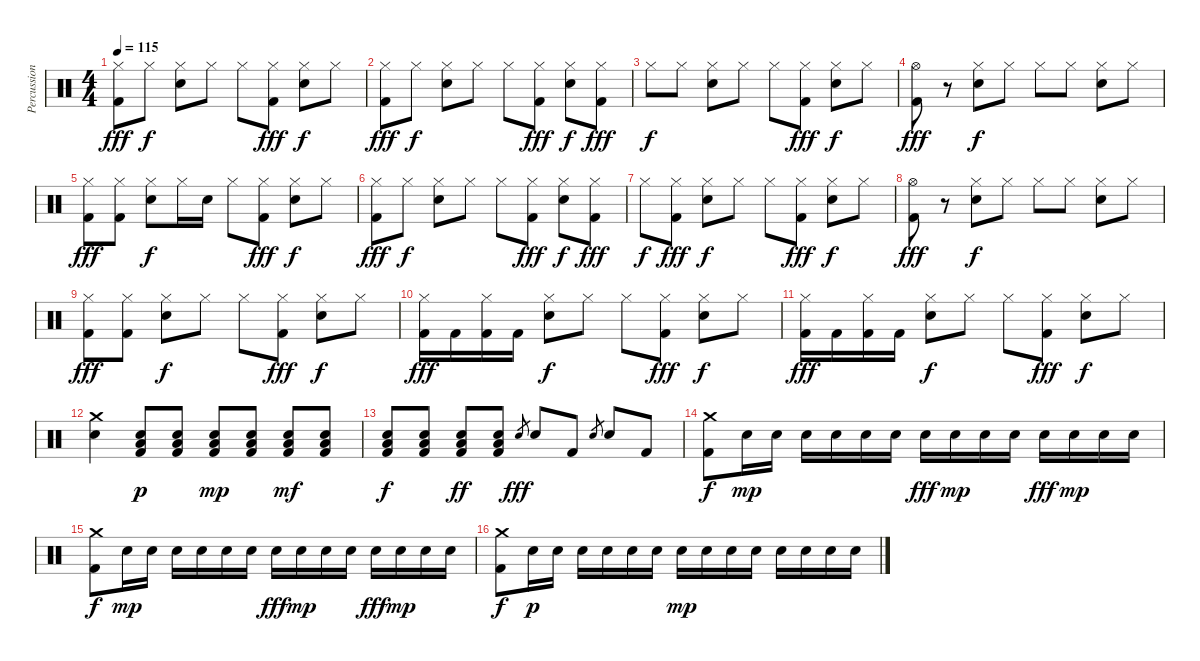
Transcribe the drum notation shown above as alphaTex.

\track ("Percussion" "Percussion") {instrument percussion}
\staff {score}
\articulation defaults
\ts (4 4)
\tempo 115
\clef neutral
\ks c
("Hi-Hat (closed)" "Kick (hit) 2").8{dy fff} "Hi-Hat (closed)".8{dy f} ("Hi-Hat (closed)" "Electric Snare (hit)").8 "Hi-Hat (closed)".8 "Hi-Hat (closed)".8 ("Hi-Hat (closed)" "Kick (hit) 2").8{dy fff} ("Hi-Hat (closed)" "Electric Snare (hit)").8{dy f} "Hi-Hat (closed)".8 |
("Hi-Hat (closed)" "Kick (hit) 2").8{dy fff} "Hi-Hat (closed)".8{dy f} ("Hi-Hat (closed)" "Electric Snare (hit)").8 "Hi-Hat (closed)".8 "Hi-Hat (closed)".8 ("Hi-Hat (closed)" "Kick (hit) 2").8{dy fff} ("Hi-Hat (closed)" "Electric Snare (hit)").8{dy f} ("Hi-Hat (closed)" "Kick (hit) 2").8{dy fff} |
"Hi-Hat (closed)".8{dy f} "Hi-Hat (closed)".8 ("Hi-Hat (closed)" "Electric Snare (hit)").8 "Hi-Hat (closed)".8 "Hi-Hat (closed)".8 ("Hi-Hat (closed)" "Kick (hit) 2").8{dy fff} ("Hi-Hat (closed)" "Electric Snare (hit)").8{dy f} "Hi-Hat (closed)".8 |
("Hi-Hat (open)" "Kick (hit) 2").8{dy fff} r.8 ("Hi-Hat (closed)" "Electric Snare (hit)").8{dy f} "Hi-Hat (closed)".8 "Hi-Hat (closed)".8 "Hi-Hat (closed)".8 ("Hi-Hat (closed)" "Electric Snare (hit)").8 "Hi-Hat (closed)".8 |
("Hi-Hat (closed)" "Kick (hit) 2").8{dy fff} ("Hi-Hat (closed)" "Kick (hit) 2").8 ("Hi-Hat (closed)" "Electric Snare (hit)").8{dy f} "Hi-Hat (closed)".16 "Electric Snare (hit)".16 "Hi-Hat (closed)".8 ("Hi-Hat (closed)" "Kick (hit) 2").8{dy fff} ("Hi-Hat (closed)" "Electric Snare (hit)").8{dy f} "Hi-Hat (closed)".8 |
("Hi-Hat (closed)" "Kick (hit) 2").8{dy fff} "Hi-Hat (closed)".8{dy f} ("Hi-Hat (closed)" "Electric Snare (hit)").8 "Hi-Hat (closed)".8 "Hi-Hat (closed)".8 ("Hi-Hat (closed)" "Kick (hit) 2").8{dy fff} ("Hi-Hat (closed)" "Electric Snare (hit)").8{dy f} ("Hi-Hat (closed)" "Kick (hit) 2").8{dy fff} |
"Hi-Hat (closed)".8{dy f} ("Hi-Hat (closed)" "Kick (hit) 2").8{dy fff} ("Hi-Hat (closed)" "Electric Snare (hit)").8{dy f} "Hi-Hat (closed)".8 "Hi-Hat (closed)".8 ("Hi-Hat (closed)" "Kick (hit) 2").8{dy fff} ("Hi-Hat (closed)" "Electric Snare (hit)").8{dy f} "Hi-Hat (closed)".8 |
("Hi-Hat (open)" "Kick (hit) 2").8{dy fff} r.8 ("Hi-Hat (closed)" "Electric Snare (hit)").8{dy f} "Hi-Hat (closed)".8 "Hi-Hat (closed)".8 "Hi-Hat (closed)".8 ("Hi-Hat (closed)" "Electric Snare (hit)").8 "Hi-Hat (closed)".8 |
("Hi-Hat (closed)" "Kick (hit) 2").8{dy fff} ("Hi-Hat (closed)" "Kick (hit) 2").8 ("Hi-Hat (closed)" "Electric Snare (hit)").8{dy f} "Hi-Hat (closed)".8 "Hi-Hat (closed)".8 ("Hi-Hat (closed)" "Kick (hit) 2").8{dy fff} ("Hi-Hat (closed)" "Electric Snare (hit)").8{dy f} "Hi-Hat (closed)".8 |
("Hi-Hat (closed)" "Kick (hit) 2").16{dy fff} "Kick (hit) 2".16 ("Hi-Hat (closed)" "Kick (hit) 2").16 "Kick (hit) 2".16 ("Hi-Hat (closed)" "Electric Snare (hit)").8{dy f} "Hi-Hat (closed)".8 "Hi-Hat (closed)".8 ("Hi-Hat (closed)" "Kick (hit) 2").8{dy fff} ("Hi-Hat (closed)" "Electric Snare (hit)").8{dy f} "Hi-Hat (closed)".8 |
("Hi-Hat (closed)" "Kick (hit) 2").16{dy fff} "Kick (hit) 2".16 ("Hi-Hat (closed)" "Kick (hit) 2").16 "Kick (hit) 2".16 ("Hi-Hat (closed)" "Electric Snare (hit)").8{dy f} "Hi-Hat (closed)".8 "Hi-Hat (closed)".8 ("Hi-Hat (closed)" "Kick (hit) 2").8{dy fff} ("Hi-Hat (closed)" "Electric Snare (hit)").8{dy f} "Hi-Hat (closed)".8 |
("Crash medium (hit)" "Electric Snare (hit)").4 ("Low Floor Tom (hit)" "Electric Snare (hit)" "Kick (hit) 2").8{dy p} ("Low Floor Tom (hit)" "Electric Snare (hit)" "Kick (hit) 2").8 ("Low Floor Tom (hit)" "Electric Snare (hit)" "Kick (hit) 2").8{dy mp} ("Low Floor Tom (hit)" "Electric Snare (hit)" "Kick (hit) 2").8 ("Low Floor Tom (hit)" "Electric Snare (hit)" "Kick (hit) 2").8{dy mf} ("Low Floor Tom (hit)" "Electric Snare (hit)" "Kick (hit) 2").8 |
("Low Floor Tom (hit)" "Electric Snare (hit)" "Kick (hit) 2").8{dy f} ("Low Floor Tom (hit)" "Electric Snare (hit)" "Kick (hit) 2").8 ("Low Floor Tom (hit)" "Electric Snare (hit)" "Kick (hit) 2").8{dy ff} ("Low Floor Tom (hit)" "Electric Snare (hit)" "Kick (hit) 2").8 "Electric Snare (hit)".8{gr dy fff} "Electric Snare (hit)".8 "Kick (hit) 2".8 "Electric Snare (hit)".8{gr} "Electric Snare (hit)".8 "Kick (hit) 2".8 |
("Crash medium (hit)" "Kick (hit) 2").8{dy f} "Electric Snare (hit)".16{dy mp} "Electric Snare (hit)".16 "Electric Snare (hit)".16 "Electric Snare (hit)".16 "Electric Snare (hit)".16 "Electric Snare (hit)".16 "Electric Snare (hit)".16{dy fff} "Electric Snare (hit)".16{dy mp} "Electric Snare (hit)".16 "Electric Snare (hit)".16 "Electric Snare (hit)".16{dy fff} "Electric Snare (hit)".16{dy mp} "Electric Snare (hit)".16 "Electric Snare (hit)".16 |
("Crash medium (hit)" "Kick (hit) 2").8{dy f} "Electric Snare (hit)".16{dy mp} "Electric Snare (hit)".16 "Electric Snare (hit)".16 "Electric Snare (hit)".16 "Electric Snare (hit)".16 "Electric Snare (hit)".16 "Electric Snare (hit)".16{dy fff} "Electric Snare (hit)".16{dy mp} "Electric Snare (hit)".16 "Electric Snare (hit)".16 "Electric Snare (hit)".16{dy fff} "Electric Snare (hit)".16{dy mp} "Electric Snare (hit)".16 "Electric Snare (hit)".16 |
("Crash medium (hit)" "Kick (hit) 2").8{dy f} "Electric Snare (hit)".16{dy p} "Electric Snare (hit)".16 "Electric Snare (hit)".16 "Electric Snare (hit)".16 "Electric Snare (hit)".16 "Electric Snare (hit)".16 "Electric Snare (hit)".16{dy mp} "Electric Snare (hit)".16 "Electric Snare (hit)".16 "Electric Snare (hit)".16 "Electric Snare (hit)".16 "Electric Snare (hit)".16 "Electric Snare (hit)".16 "Electric Snare (hit)".16
